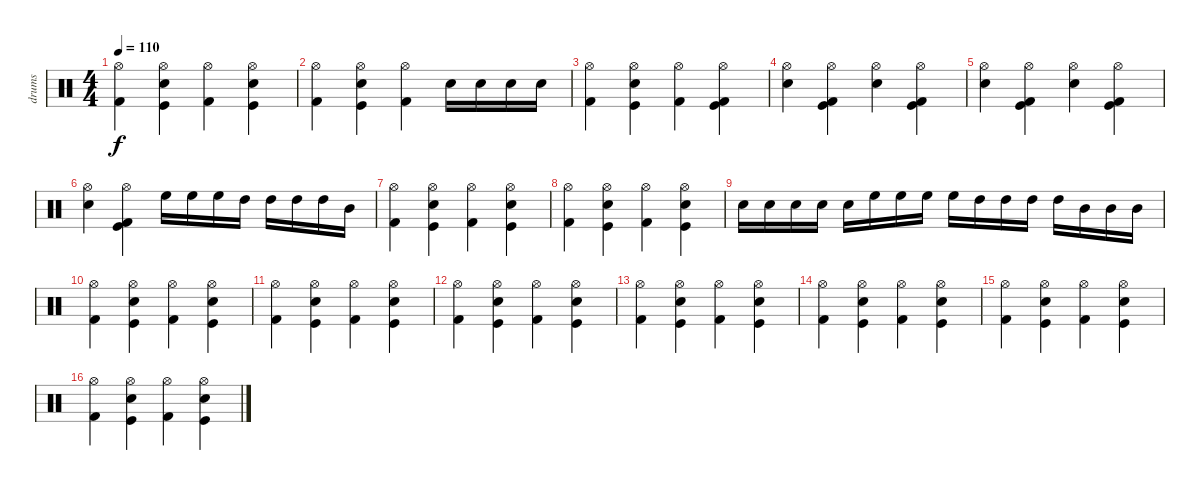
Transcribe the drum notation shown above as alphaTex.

\track ("drums" "drums") {instrument percussion}
\staff {score}
\articulation defaults
\ts (4 4)
\tempo 110
\clef neutral
\ks c
("Hi-Hat (open)" "Kick (hit) 2").4{dy f} ("Hi-Hat (open)" "Snare (hit) 2" "Kick (hit)").4 ("Hi-Hat (open)" "Kick (hit) 2").4 ("Hi-Hat (open)" "Snare (hit) 2" "Kick (hit)").4 |
("Hi-Hat (open)" "Kick (hit) 2").4 ("Hi-Hat (open)" "Snare (hit) 2" "Kick (hit)").4 ("Hi-Hat (open)" "Kick (hit) 2").4 "Electric Snare (hit)".16 "Electric Snare (hit)".16 "Electric Snare (hit)".16 "Electric Snare (hit)".16 |
("Hi-Hat (open)" "Kick (hit) 2").4 ("Hi-Hat (open)" "Snare (hit) 2" "Kick (hit)").4 ("Hi-Hat (open)" "Kick (hit) 2").4 ("Hi-Hat (open)" "Kick (hit) 2" "Kick (hit)").4 |
("Hi-Hat (open)" "Snare (hit) 2").4 ("Hi-Hat (open)" "Kick (hit) 2" "Kick (hit)").4 ("Hi-Hat (open)" "Snare (hit) 2").4 ("Hi-Hat (open)" "Kick (hit) 2" "Kick (hit)").4 |
("Hi-Hat (open)" "Snare (hit) 2").4 ("Hi-Hat (open)" "Kick (hit) 2" "Kick (hit)").4 ("Hi-Hat (open)" "Snare (hit) 2").4 ("Hi-Hat (open)" "Kick (hit) 2" "Kick (hit)").4 |
("Hi-Hat (open)" "Snare (hit) 2").4 ("Hi-Hat (open)" "Kick (hit) 2" "Kick (hit)").4 "High Floor Tom (hit)".16 "High Floor Tom (hit)".16 "High Floor Tom (hit)".16 "High Tom (hit)".16 "High Tom (hit)".16 "High Tom (hit)".16 "High Tom (hit)".16 "Mid Tom (hit)".16 |
("Hi-Hat (open)" "Kick (hit) 2").4 ("Hi-Hat (open)" "Snare (hit) 2" "Kick (hit)").4 ("Hi-Hat (open)" "Kick (hit) 2").4 ("Hi-Hat (open)" "Snare (hit) 2" "Kick (hit)").4 |
("Hi-Hat (open)" "Kick (hit) 2").4 ("Hi-Hat (open)" "Snare (hit) 2" "Kick (hit)").4 ("Hi-Hat (open)" "Kick (hit) 2").4 ("Hi-Hat (open)" "Snare (hit) 2" "Kick (hit)").4 |
"Electric Snare (hit)".16 "Electric Snare (hit)".16 "Electric Snare (hit)".16 "Electric Snare (hit)".16 "Electric Snare (hit)".16 "High Floor Tom (hit)".16 "High Floor Tom (hit)".16 "High Floor Tom (hit)".16 "High Floor Tom (hit)".16 "High Tom (hit)".16 "High Tom (hit)".16 "High Tom (hit)".16 "High Tom (hit)".16 "Mid Tom (hit)".16 "Mid Tom (hit)".16 "Mid Tom (hit)".16 |
("Hi-Hat (open)" "Kick (hit) 2").4 ("Hi-Hat (open)" "Snare (hit) 2" "Kick (hit)").4 ("Hi-Hat (open)" "Kick (hit) 2").4 ("Hi-Hat (open)" "Snare (hit) 2" "Kick (hit)").4 |
("Hi-Hat (open)" "Kick (hit) 2").4 ("Hi-Hat (open)" "Snare (hit) 2" "Kick (hit)").4 ("Hi-Hat (open)" "Kick (hit) 2").4 ("Hi-Hat (open)" "Snare (hit) 2" "Kick (hit)").4 |
("Hi-Hat (open)" "Kick (hit) 2").4 ("Hi-Hat (open)" "Snare (hit) 2" "Kick (hit)").4 ("Hi-Hat (open)" "Kick (hit) 2").4 ("Hi-Hat (open)" "Snare (hit) 2" "Kick (hit)").4 |
("Hi-Hat (open)" "Kick (hit) 2").4 ("Hi-Hat (open)" "Snare (hit) 2" "Kick (hit)").4 ("Hi-Hat (open)" "Kick (hit) 2").4 ("Hi-Hat (open)" "Snare (hit) 2" "Kick (hit)").4 |
("Hi-Hat (open)" "Kick (hit) 2").4 ("Hi-Hat (open)" "Snare (hit) 2" "Kick (hit)").4 ("Hi-Hat (open)" "Kick (hit) 2").4 ("Hi-Hat (open)" "Snare (hit) 2" "Kick (hit)").4 |
("Hi-Hat (open)" "Kick (hit) 2").4 ("Hi-Hat (open)" "Snare (hit) 2" "Kick (hit)").4 ("Hi-Hat (open)" "Kick (hit) 2").4 ("Hi-Hat (open)" "Snare (hit) 2" "Kick (hit)").4 |
("Hi-Hat (open)" "Kick (hit) 2").4 ("Hi-Hat (open)" "Snare (hit) 2" "Kick (hit)").4 ("Hi-Hat (open)" "Kick (hit) 2").4 ("Hi-Hat (open)" "Snare (hit) 2" "Kick (hit)").4
